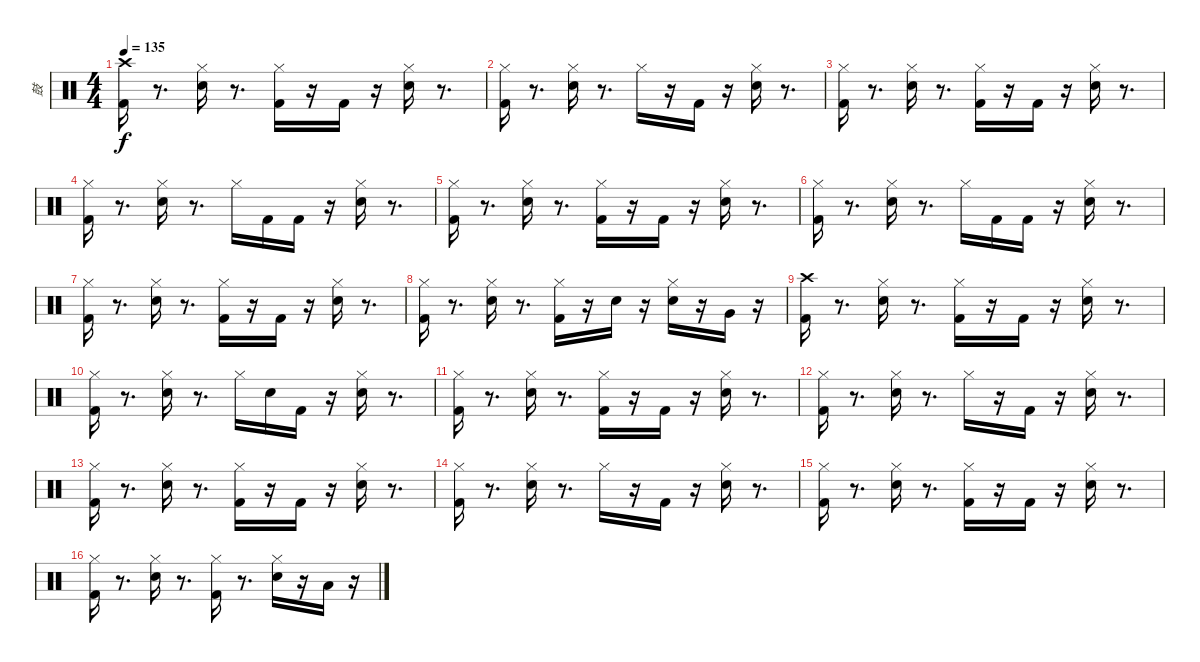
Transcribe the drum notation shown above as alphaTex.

\track ("鼓" "鼓") {instrument percussion}
\staff {score}
\articulation defaults
\ts (4 4)
\tempo 135
\clef neutral
\ks c
("Kick (hit) 2" "Crash high (hit)").16{dy f} r.8{d} ("Hi-Hat (closed)" "Electric Snare (hit)").16 r.8{d} ("Hi-Hat (closed)" "Kick (hit) 2").16 r.16 "Kick (hit) 2".16 r.16 ("Hi-Hat (closed)" "Electric Snare (hit)").16 r.8{d} |
("Hi-Hat (closed)" "Kick (hit) 2").16 r.8{d} ("Hi-Hat (closed)" "Electric Snare (hit)").16 r.8{d} "Hi-Hat (closed)".16 r.16 "Kick (hit) 2".16 r.16 ("Hi-Hat (closed)" "Electric Snare (hit)").16 r.8{d} |
("Hi-Hat (closed)" "Kick (hit) 2").16 r.8{d} ("Hi-Hat (closed)" "Electric Snare (hit)").16 r.8{d} ("Hi-Hat (closed)" "Kick (hit) 2").16 r.16 "Kick (hit) 2".16 r.16 ("Hi-Hat (closed)" "Electric Snare (hit)").16 r.8{d} |
("Hi-Hat (closed)" "Kick (hit) 2").16 r.8{d} ("Hi-Hat (closed)" "Electric Snare (hit)").16 r.8{d} "Hi-Hat (closed)".16 "Kick (hit) 2".16 "Kick (hit) 2".16 r.16 ("Hi-Hat (closed)" "Electric Snare (hit)").16 r.8{d} |
("Hi-Hat (closed)" "Kick (hit) 2").16 r.8{d} ("Hi-Hat (closed)" "Electric Snare (hit)").16 r.8{d} ("Hi-Hat (closed)" "Kick (hit) 2").16 r.16 "Kick (hit) 2".16 r.16 ("Hi-Hat (closed)" "Electric Snare (hit)").16 r.8{d} |
("Hi-Hat (closed)" "Kick (hit) 2").16 r.8{d} ("Hi-Hat (closed)" "Electric Snare (hit)").16 r.8{d} "Hi-Hat (closed)".16 "Kick (hit) 2".16 "Kick (hit) 2".16 r.16 ("Hi-Hat (closed)" "Electric Snare (hit)").16 r.8{d} |
("Hi-Hat (closed)" "Kick (hit) 2").16 r.8{d} ("Hi-Hat (closed)" "Electric Snare (hit)").16 r.8{d} ("Hi-Hat (closed)" "Kick (hit) 2").16 r.16 "Kick (hit) 2".16 r.16 ("Hi-Hat (closed)" "Electric Snare (hit)").16 r.8{d} |
("Hi-Hat (closed)" "Kick (hit) 2").16 r.8{d} ("Hi-Hat (closed)" "Electric Snare (hit)").16 r.8{d} ("Hi-Hat (closed)" "Kick (hit) 2").16 r.16 "Electric Snare (hit)".16 r.16 ("Hi-Hat (closed)" "Electric Snare (hit)").16 r.16 "Very Low Tom (hit)".16 r.16 |
("Kick (hit) 2" "Crash high (hit)").16 r.8{d} ("Hi-Hat (closed)" "Electric Snare (hit)").16 r.8{d} ("Hi-Hat (closed)" "Kick (hit) 2").16 r.16 "Kick (hit) 2".16 r.16 ("Hi-Hat (closed)" "Electric Snare (hit)").16 r.8{d} |
("Hi-Hat (closed)" "Kick (hit) 2").16 r.8{d} ("Hi-Hat (closed)" "Electric Snare (hit)").16 r.8{d} "Hi-Hat (closed)".16 "Electric Snare (hit)".16 "Kick (hit) 2".16 r.16 ("Hi-Hat (closed)" "Electric Snare (hit)").16 r.8{d} |
("Hi-Hat (closed)" "Kick (hit) 2").16 r.8{d} ("Hi-Hat (closed)" "Electric Snare (hit)").16 r.8{d} ("Hi-Hat (closed)" "Kick (hit) 2").16 r.16 "Kick (hit) 2".16 r.16 ("Hi-Hat (closed)" "Electric Snare (hit)").16 r.8{d} |
("Hi-Hat (closed)" "Kick (hit) 2").16 r.8{d} ("Hi-Hat (closed)" "Electric Snare (hit)").16 r.8{d} "Hi-Hat (closed)".16 r.16 "Kick (hit) 2".16 r.16 ("Hi-Hat (closed)" "Electric Snare (hit)").16 r.8{d} |
("Hi-Hat (closed)" "Kick (hit) 2").16 r.8{d} ("Hi-Hat (closed)" "Electric Snare (hit)").16 r.8{d} ("Hi-Hat (closed)" "Kick (hit) 2").16 r.16 "Kick (hit) 2".16 r.16 ("Hi-Hat (closed)" "Electric Snare (hit)").16 r.8{d} |
("Hi-Hat (closed)" "Kick (hit) 2").16 r.8{d} ("Hi-Hat (closed)" "Electric Snare (hit)").16 r.8{d} "Hi-Hat (closed)".16 r.16 "Kick (hit) 2".16 r.16 ("Hi-Hat (closed)" "Electric Snare (hit)").16 r.8{d} |
("Hi-Hat (closed)" "Kick (hit) 2").16 r.8{d} ("Electric Snare (hit)" "Hi-Hat (closed)").16 r.8{d} ("Kick (hit) 2" "Hi-Hat (closed)").16 r.16 "Kick (hit) 2".16 r.16 ("Electric Snare (hit)" "Hi-Hat (closed)").16 r.8{d} |
("Kick (hit) 2" "Hi-Hat (closed)").16 r.8{d} ("Electric Snare (hit)" "Hi-Hat (closed)").16 r.8{d} ("Kick (hit) 2" "Hi-Hat (closed)").16 r.8{d} ("Electric Snare (hit)" "Hi-Hat (closed)").16 r.16 "Low Tom (hit)".16 r.16
